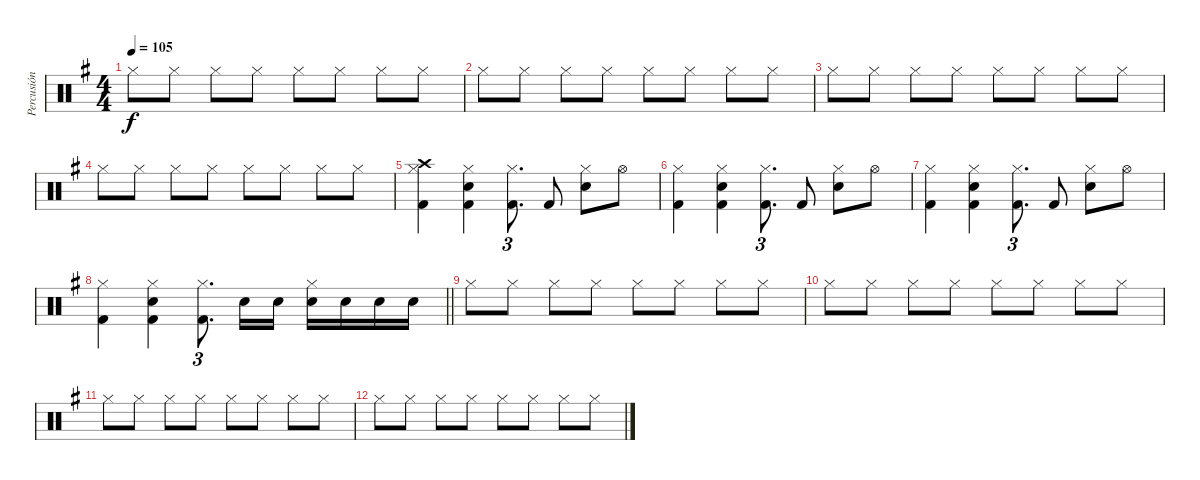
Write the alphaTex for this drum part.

\track ("Percusión" "Percusión") {instrument percussion}
\staff {score}
\articulation defaults
\ts (4 4)
\tempo 105
\clef neutral
\ks g "Hi-Hat (closed)".8{dy f} "Hi-Hat (closed)".8 "Hi-Hat (closed)".8 "Hi-Hat (closed)".8 "Hi-Hat (closed)".8 "Hi-Hat (closed)".8 "Hi-Hat (closed)".8 "Hi-Hat (closed)".8
|
"Hi-Hat (closed)".8 "Hi-Hat (closed)".8 "Hi-Hat (closed)".8 "Hi-Hat (closed)".8 "Hi-Hat (closed)".8 "Hi-Hat (closed)".8 "Hi-Hat (closed)".8 "Hi-Hat (closed)".8 |
"Hi-Hat (closed)".8 "Hi-Hat (closed)".8 "Hi-Hat (closed)".8 "Hi-Hat (closed)".8 "Hi-Hat (closed)".8 "Hi-Hat (closed)".8 "Hi-Hat (closed)".8 "Hi-Hat (closed)".8 |
"Hi-Hat (closed)".8 "Hi-Hat (closed)".8 "Hi-Hat (closed)".8 "Hi-Hat (closed)".8 "Hi-Hat (closed)".8 "Hi-Hat (closed)".8 "Hi-Hat (closed)".8 "Hi-Hat (closed)".8 |
("Hi-Hat (closed)" "Kick (hit) 2" "Crash high (hit)").4 ("Hi-Hat (closed)" "Electric Snare (hit)" "Kick (hit) 2").4 ("Hi-Hat (closed)" "Kick (hit) 2").8{d tu (3 2)} "Kick (hit) 2".8 ("Hi-Hat (closed)" "Electric Snare (hit)").8 "Hi-Hat (open)".8 |
("Hi-Hat (closed)" "Kick (hit) 2").4 ("Hi-Hat (closed)" "Electric Snare (hit)" "Kick (hit) 2").4 ("Hi-Hat (closed)" "Kick (hit) 2").8{d tu (3 2)} "Kick (hit) 2".8 ("Hi-Hat (closed)" "Electric Snare (hit)").8 "Hi-Hat (open)".8 |
("Hi-Hat (closed)" "Kick (hit) 2").4 ("Hi-Hat (closed)" "Electric Snare (hit)" "Kick (hit) 2").4 ("Hi-Hat (closed)" "Kick (hit) 2").8{d tu (3 2)} "Kick (hit) 2".8 ("Hi-Hat (closed)" "Electric Snare (hit)").8 "Hi-Hat (open)".8 |
\barLineRight lightlight
("Hi-Hat (closed)" "Kick (hit) 2").4 ("Hi-Hat (closed)" "Electric Snare (hit)" "Kick (hit) 2").4 ("Hi-Hat (closed)" "Kick (hit) 2").8{d tu (3 2)} "Electric Snare (hit)".16 "Electric Snare (hit)".16 ("Hi-Hat (closed)" "Electric Snare (hit)").16 "Electric Snare (hit)".16 "Electric Snare (hit)".16 "Electric Snare (hit)".16 |
"Hi-Hat (closed)".8 "Hi-Hat (closed)".8 "Hi-Hat (closed)".8 "Hi-Hat (closed)".8 "Hi-Hat (closed)".8 "Hi-Hat (closed)".8 "Hi-Hat (closed)".8 "Hi-Hat (closed)".8 |
"Hi-Hat (closed)".8 "Hi-Hat (closed)".8 "Hi-Hat (closed)".8 "Hi-Hat (closed)".8 "Hi-Hat (closed)".8 "Hi-Hat (closed)".8 "Hi-Hat (closed)".8 "Hi-Hat (closed)".8 |
"Hi-Hat (closed)".8 "Hi-Hat (closed)".8 "Hi-Hat (closed)".8 "Hi-Hat (closed)".8 "Hi-Hat (closed)".8 "Hi-Hat (closed)".8 "Hi-Hat (closed)".8 "Hi-Hat (closed)".8 |
"Hi-Hat (closed)".8 "Hi-Hat (closed)".8 "Hi-Hat (closed)".8 "Hi-Hat (closed)".8 "Hi-Hat (closed)".8 "Hi-Hat (closed)".8 "Hi-Hat (closed)".8 "Hi-Hat (closed)".8
